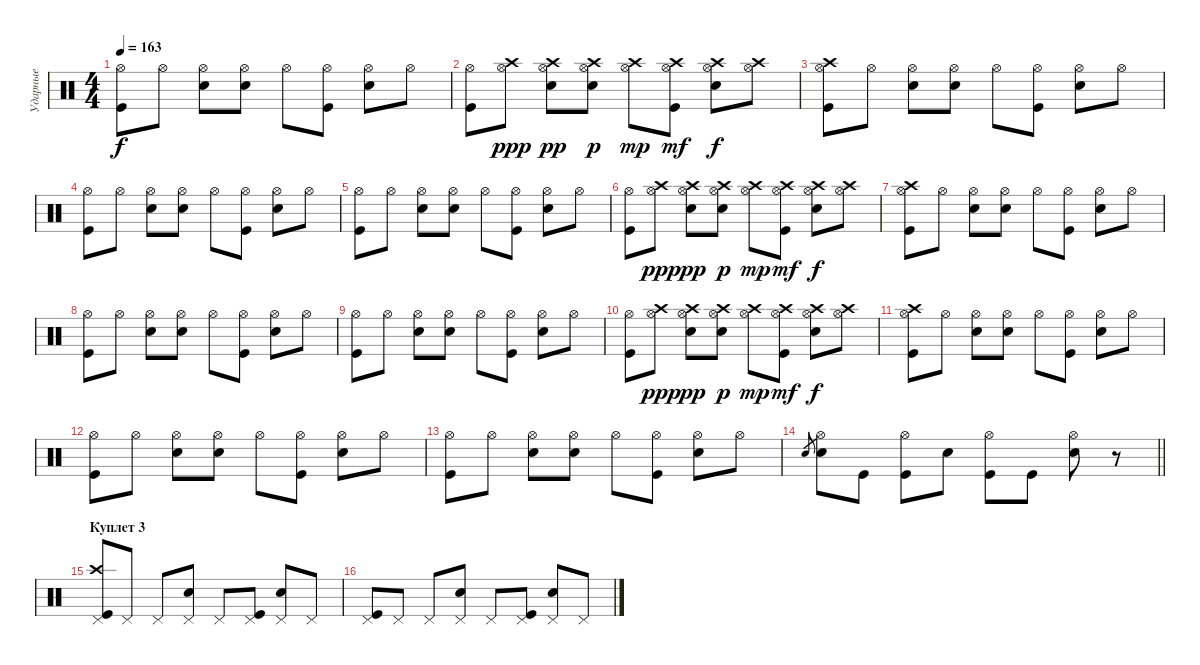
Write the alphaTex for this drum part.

\track ("Ударные" "Ударные") {instrument percussion}
\staff {score}
\articulation defaults
\ts (4 4)
\tempo 163
\clef neutral
\ks c
("Kick (hit)" "Hi-Hat (open)").8{dy f} "Hi-Hat (open)".8 ("Hi-Hat (open)" "Snare (hit) 2").8 ("Hi-Hat (open)" "Snare (hit) 2").8 "Hi-Hat (open)".8 ("Kick (hit)" "Hi-Hat (open)").8 ("Hi-Hat (open)" "Snare (hit) 2").8 "Hi-Hat (open)".8 |
("Kick (hit)" "Hi-Hat (open)").8 ("Hi-Hat (open)" "Crash high (hit)").8{dy ppp} ("Hi-Hat (open)" "Snare (hit) 2" "Crash high (hit)").8{dy pp} ("Hi-Hat (open)" "Snare (hit) 2" "Crash high (hit)").8{dy p} ("Hi-Hat (open)" "Crash high (hit)").8{dy mp} ("Kick (hit)" "Hi-Hat (open)" "Crash high (hit)").8{dy mf} ("Hi-Hat (open)" "Snare (hit) 2" "Crash high (hit)").8{dy f} ("Hi-Hat (open)" "Crash high (hit)").8 |
("Kick (hit)" "Hi-Hat (open)" "Crash high (hit)").8 "Hi-Hat (open)".8 ("Hi-Hat (open)" "Snare (hit) 2").8 ("Hi-Hat (open)" "Snare (hit) 2").8 "Hi-Hat (open)".8 ("Kick (hit)" "Hi-Hat (open)").8 ("Hi-Hat (open)" "Snare (hit) 2").8 "Hi-Hat (open)".8 |
("Kick (hit)" "Hi-Hat (open)").8 "Hi-Hat (open)".8 ("Hi-Hat (open)" "Snare (hit) 2").8 ("Hi-Hat (open)" "Snare (hit) 2").8 "Hi-Hat (open)".8 ("Kick (hit)" "Hi-Hat (open)").8 ("Hi-Hat (open)" "Snare (hit) 2").8 "Hi-Hat (open)".8 |
("Kick (hit)" "Hi-Hat (open)").8 "Hi-Hat (open)".8 ("Hi-Hat (open)" "Snare (hit) 2").8 ("Hi-Hat (open)" "Snare (hit) 2").8 "Hi-Hat (open)".8 ("Kick (hit)" "Hi-Hat (open)").8 ("Hi-Hat (open)" "Snare (hit) 2").8 "Hi-Hat (open)".8 |
("Kick (hit)" "Hi-Hat (open)").8 ("Hi-Hat (open)" "Crash high (hit)").8{dy ppp} ("Hi-Hat (open)" "Snare (hit) 2" "Crash high (hit)").8{dy pp} ("Hi-Hat (open)" "Snare (hit) 2" "Crash high (hit)").8{dy p} ("Hi-Hat (open)" "Crash high (hit)").8{dy mp} ("Kick (hit)" "Hi-Hat (open)" "Crash high (hit)").8{dy mf} ("Hi-Hat (open)" "Snare (hit) 2" "Crash high (hit)").8{dy f} ("Hi-Hat (open)" "Crash high (hit)").8 |
("Kick (hit)" "Hi-Hat (open)" "Crash high (hit)").8 "Hi-Hat (open)".8 ("Hi-Hat (open)" "Snare (hit) 2").8 ("Hi-Hat (open)" "Snare (hit) 2").8 "Hi-Hat (open)".8 ("Kick (hit)" "Hi-Hat (open)").8 ("Hi-Hat (open)" "Snare (hit) 2").8 "Hi-Hat (open)".8 |
("Kick (hit)" "Hi-Hat (open)").8 "Hi-Hat (open)".8 ("Hi-Hat (open)" "Snare (hit) 2").8 ("Hi-Hat (open)" "Snare (hit) 2").8 "Hi-Hat (open)".8 ("Kick (hit)" "Hi-Hat (open)").8 ("Hi-Hat (open)" "Snare (hit) 2").8 "Hi-Hat (open)".8 |
("Kick (hit)" "Hi-Hat (open)").8 "Hi-Hat (open)".8 ("Hi-Hat (open)" "Snare (hit) 2").8 ("Hi-Hat (open)" "Snare (hit) 2").8 "Hi-Hat (open)".8 ("Kick (hit)" "Hi-Hat (open)").8 ("Hi-Hat (open)" "Snare (hit) 2").8 "Hi-Hat (open)".8 |
("Kick (hit)" "Hi-Hat (open)").8 ("Hi-Hat (open)" "Crash high (hit)").8{dy ppp} ("Hi-Hat (open)" "Snare (hit) 2" "Crash high (hit)").8{dy pp} ("Hi-Hat (open)" "Snare (hit) 2" "Crash high (hit)").8{dy p} ("Hi-Hat (open)" "Crash high (hit)").8{dy mp} ("Kick (hit)" "Hi-Hat (open)" "Crash high (hit)").8{dy mf} ("Hi-Hat (open)" "Snare (hit) 2" "Crash high (hit)").8{dy f} ("Hi-Hat (open)" "Crash high (hit)").8 |
("Kick (hit)" "Hi-Hat (open)" "Crash high (hit)").8 "Hi-Hat (open)".8 ("Hi-Hat (open)" "Snare (hit) 2").8 ("Hi-Hat (open)" "Snare (hit) 2").8 "Hi-Hat (open)".8 ("Kick (hit)" "Hi-Hat (open)").8 ("Hi-Hat (open)" "Snare (hit) 2").8 "Hi-Hat (open)".8 |
("Kick (hit)" "Hi-Hat (open)").8 "Hi-Hat (open)".8 ("Hi-Hat (open)" "Snare (hit) 2").8 ("Hi-Hat (open)" "Snare (hit) 2").8 "Hi-Hat (open)".8 ("Kick (hit)" "Hi-Hat (open)").8 ("Hi-Hat (open)" "Snare (hit) 2").8 "Hi-Hat (open)".8 |
("Kick (hit)" "Hi-Hat (open)").8 "Hi-Hat (open)".8 ("Hi-Hat (open)" "Snare (hit) 2").8 ("Hi-Hat (open)" "Snare (hit) 2").8 "Hi-Hat (open)".8 ("Kick (hit)" "Hi-Hat (open)").8 ("Hi-Hat (open)" "Snare (hit) 2").8 "Hi-Hat (open)".8 |
\barLineRight lightlight "Snare (hit) 2".8{gr}
("Hi-Hat (open)" "Snare (hit) 2").8 "Kick (hit)".8 ("Kick (hit)" "Hi-Hat (open)").8 "Snare (hit) 2".8 ("Kick (hit)" "Hi-Hat (open)").8 "Kick (hit)".8 ("Hi-Hat (open)" "Snare (hit) 2").8 r.8 |
\section ("" "Куплет 3")
("Kick (hit)" "Pedal Hi-Hat (hit)" "Crash high (hit)").8 "Pedal Hi-Hat (hit)".8 "Pedal Hi-Hat (hit)".8 ("Pedal Hi-Hat (hit)" "Snare (hit) 2").8 "Pedal Hi-Hat (hit)".8 ("Kick (hit)" "Pedal Hi-Hat (hit)").8 ("Pedal Hi-Hat (hit)" "Snare (hit) 2").8 "Pedal Hi-Hat (hit)".8 |
("Kick (hit)" "Pedal Hi-Hat (hit)").8 "Pedal Hi-Hat (hit)".8 "Pedal Hi-Hat (hit)".8 ("Pedal Hi-Hat (hit)" "Snare (hit) 2").8 "Pedal Hi-Hat (hit)".8 ("Kick (hit)" "Pedal Hi-Hat (hit)").8 ("Pedal Hi-Hat (hit)" "Snare (hit) 2").8 "Pedal Hi-Hat (hit)".8
